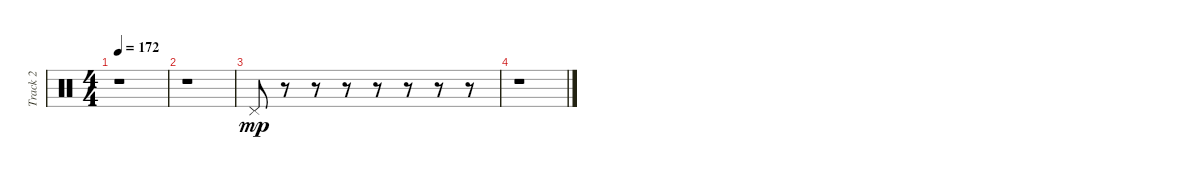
\track ("Track 2" "Track 2") {instrument percussion}
\staff {score}
\articulation defaults
\ts (4 4)
\tempo 172
\clef neutral
\ks c
r.1{dy ff} |
r.1 |
"Pedal Hi-Hat (hit)".8{dy mp} r.8 r.8 r.8 r.8 r.8 r.8 r.8 |
r.1
